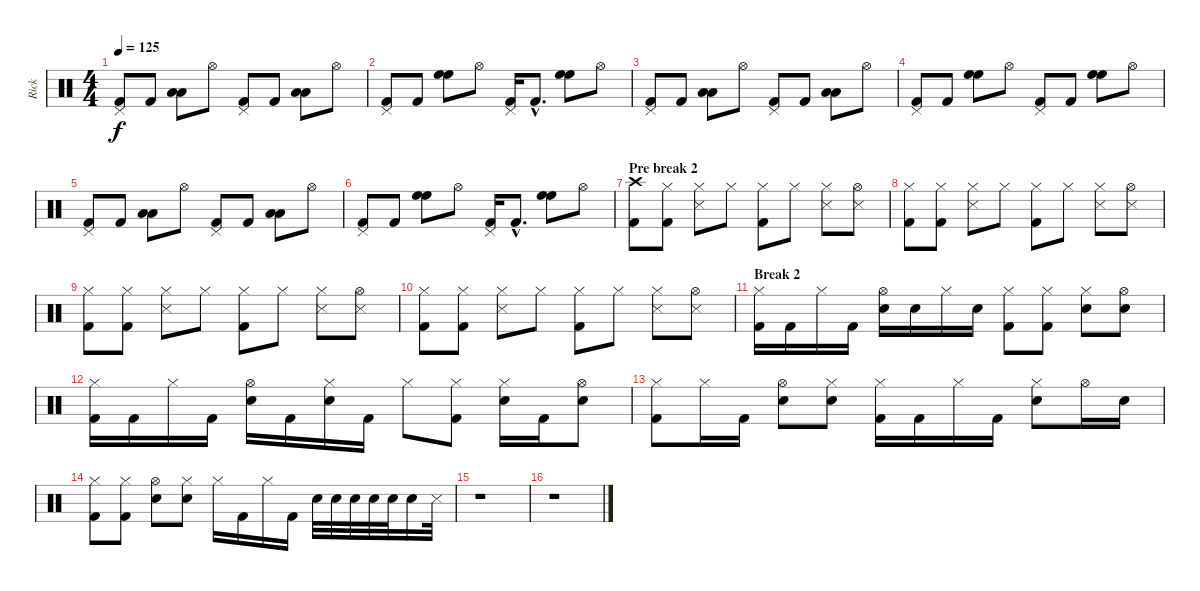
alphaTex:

\track ("Rick" "Rick") {instrument percussion}
\staff {score}
\articulation defaults
\ts (4 4)
\tempo 125
\clef neutral
\ks c
("Pedal Hi-Hat (hit)" "Kick (hit) 2").8{dy f} "Kick (hit) 2".8 ("Low Tom (hit)" "Low Tom (hit)").8 "Hi-Hat (open)".8 ("Pedal Hi-Hat (hit)" "Kick (hit) 2").8 "Kick (hit) 2".8 ("Low Tom (hit)" "Low Tom (hit)").8 "Hi-Hat (open)".8 |
("Pedal Hi-Hat (hit)" "Kick (hit) 2").8 "Kick (hit) 2".8 ("High Floor Tom (hit)" "High Floor Tom (hit)").8 "Hi-Hat (open)".8 ("Pedal Hi-Hat (hit)" "Kick (hit) 2").16 "Kick (hit) 2"{hac}.8{d} ("High Floor Tom (hit)" "High Floor Tom (hit)").8 "Hi-Hat (open)".8 |
("Pedal Hi-Hat (hit)" "Kick (hit) 2").8 "Kick (hit) 2".8 ("Low Tom (hit)" "Low Tom (hit)").8 "Hi-Hat (open)".8 ("Pedal Hi-Hat (hit)" "Kick (hit) 2").8 "Kick (hit) 2".8 ("Low Tom (hit)" "Low Tom (hit)").8 "Hi-Hat (open)".8 |
("Pedal Hi-Hat (hit)" "Kick (hit) 2").8 "Kick (hit) 2".8 ("High Floor Tom (hit)" "High Floor Tom (hit)").8 "Hi-Hat (open)".8 ("Pedal Hi-Hat (hit)" "Kick (hit) 2").8 "Kick (hit) 2".8 ("High Floor Tom (hit)" "High Floor Tom (hit)").8 "Hi-Hat (open)".8 |
("Pedal Hi-Hat (hit)" "Kick (hit) 2").8 "Kick (hit) 2".8 ("Low Tom (hit)" "Low Tom (hit)").8 "Hi-Hat (open)".8 ("Pedal Hi-Hat (hit)" "Kick (hit) 2").8 "Kick (hit) 2".8 ("Low Tom (hit)" "Low Tom (hit)").8 "Hi-Hat (open)".8 |
("Pedal Hi-Hat (hit)" "Kick (hit) 2").8 "Kick (hit) 2".8 ("High Floor Tom (hit)" "High Floor Tom (hit)").8 "Hi-Hat (open)".8 ("Pedal Hi-Hat (hit)" "Kick (hit) 2").16 "Kick (hit) 2"{hac}.8{d} ("High Floor Tom (hit)" "High Floor Tom (hit)").8 "Hi-Hat (open)".8 |
\section ("" "Pre break 2")
("Crash high (hit)" "Kick (hit) 2").8 ("Hi-Hat (closed)" "Kick (hit) 2").8 ("Hi-Hat (closed)" "Snare (side stick) 3").8 "Hi-Hat (closed)".8 ("Hi-Hat (closed)" "Kick (hit) 2").8 "Hi-Hat (closed)".8 ("Hi-Hat (closed)" "Snare (side stick) 3").8 ("Hi-Hat (open)" "Snare (side stick) 3").8 |
("Hi-Hat (closed)" "Kick (hit) 2").8 ("Hi-Hat (closed)" "Kick (hit) 2").8 ("Hi-Hat (closed)" "Snare (side stick) 3").8 "Hi-Hat (closed)".8 ("Hi-Hat (closed)" "Kick (hit) 2").8 "Hi-Hat (closed)".8 ("Hi-Hat (closed)" "Snare (side stick) 3").8 ("Hi-Hat (open)" "Snare (side stick) 3").8 |
("Hi-Hat (closed)" "Kick (hit) 2").8 ("Hi-Hat (closed)" "Kick (hit) 2").8 ("Hi-Hat (closed)" "Snare (side stick) 3").8 "Hi-Hat (closed)".8 ("Hi-Hat (closed)" "Kick (hit) 2").8 "Hi-Hat (closed)".8 ("Hi-Hat (closed)" "Snare (side stick) 3").8 ("Hi-Hat (open)" "Snare (side stick) 3").8 |
("Hi-Hat (closed)" "Kick (hit) 2").8 ("Hi-Hat (closed)" "Kick (hit) 2").8 ("Hi-Hat (closed)" "Snare (side stick) 3").8 "Hi-Hat (closed)".8 ("Hi-Hat (closed)" "Kick (hit) 2").8 "Hi-Hat (closed)".8 ("Hi-Hat (closed)" "Snare (side stick) 3").8 ("Hi-Hat (open)" "Snare (side stick) 3").8 |
\section ("" "Break 2")
("Hi-Hat (closed)" "Kick (hit) 2").16 "Kick (hit) 2".16 "Hi-Hat (closed)".16 "Kick (hit) 2".16 ("Hi-Hat (open)" "Snare (hit) 2").16 "Snare (hit) 2".16 "Hi-Hat (closed)".16 "Snare (hit) 2".16 ("Hi-Hat (closed)" "Kick (hit) 2").8 ("Hi-Hat (closed)" "Kick (hit) 2").8 ("Hi-Hat (closed)" "Snare (hit) 2").8 ("Hi-Hat (open)" "Snare (hit) 2").8 |
("Hi-Hat (closed)" "Kick (hit) 2").16 "Kick (hit) 2".16 "Hi-Hat (closed)".16 "Kick (hit) 2".16 ("Hi-Hat (open)" "Snare (hit) 2").16 "Kick (hit) 2".16 ("Hi-Hat (closed)" "Snare (hit) 2").16 "Kick (hit) 2".16 "Hi-Hat (closed)".8 ("Hi-Hat (closed)" "Kick (hit) 2").8 ("Hi-Hat (closed)" "Snare (hit) 2").16 "Kick (hit) 2".16 ("Hi-Hat (open)" "Snare (hit) 2").8 |
("Hi-Hat (closed)" "Kick (hit) 2").8 "Hi-Hat (closed)".16 "Kick (hit) 2".16 ("Hi-Hat (open)" "Snare (hit) 2").8 ("Hi-Hat (closed)" "Snare (hit) 2").8 ("Hi-Hat (closed)" "Kick (hit) 2").16 "Kick (hit) 2".16 "Hi-Hat (closed)".16 "Kick (hit) 2".16 ("Hi-Hat (closed)" "Snare (hit) 2").8 "Hi-Hat (open)".16 "Snare (hit) 2".16 |
("Hi-Hat (closed)" "Kick (hit) 2").8 ("Hi-Hat (closed)" "Kick (hit) 2").8 ("Hi-Hat (open)" "Snare (hit) 2").8 ("Hi-Hat (closed)" "Snare (hit) 2").8 "Hi-Hat (closed)".16 "Kick (hit) 2".16 "Hi-Hat (closed)".16 "Kick (hit) 2".16 "Snare (hit) 2".32 "Snare (hit) 2".32 "Snare (hit) 2".32 "Snare (hit) 2".32 "Snare (hit) 2".32 "Snare (hit) 2".16 "Snare (side stick) 3".32 |
r.1 |
r.1
